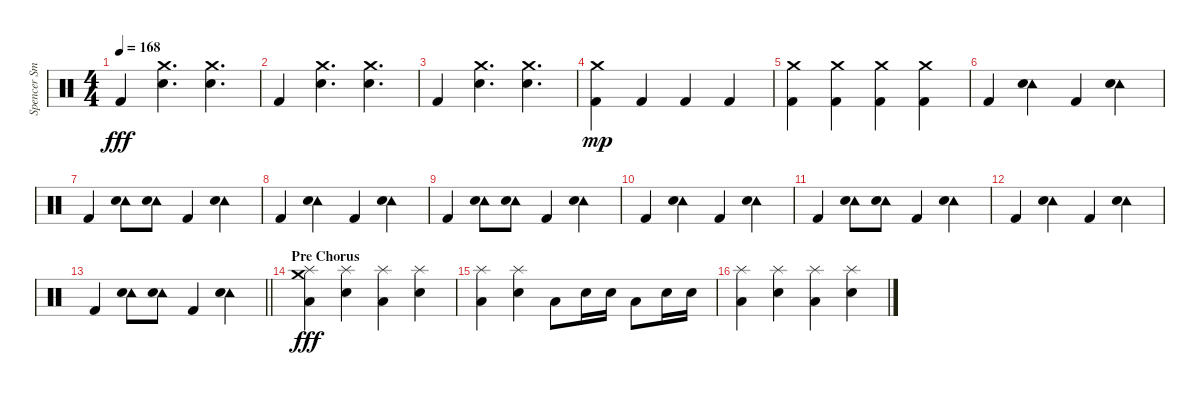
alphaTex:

\track ("Spencer Smith" "Spencer Sm") {instrument percussion}
\staff {score}
\articulation defaults
\ts (4 4)
\tempo 168
\clef neutral
\ks c "Kick (hit) 2".4{dy fff}
("Crash medium (hit)" "Electric Snare (hit)").4{d} ("Crash medium (hit)" "Electric Snare (hit)").4{d} |
"Kick (hit) 2".4 ("Crash medium (hit)" "Electric Snare (hit)").4{d} ("Crash medium (hit)" "Electric Snare (hit)").4{d} |
"Kick (hit) 2".4 ("Crash medium (hit)" "Electric Snare (hit)").4{d} ("Crash medium (hit)" "Electric Snare (hit)").4{d} |
("Crash medium (hit)" "Kick (hit) 2").4{dy mp} "Kick (hit) 2".4 "Kick (hit) 2".4 "Kick (hit) 2".4 |
("Crash medium (hit)" "Kick (hit) 2").4 ("Crash medium (hit)" "Kick (hit) 2").4 ("Crash medium (hit)" "Kick (hit) 2").4 ("Crash medium (hit)" "Kick (hit) 2").4 |
"Kick (hit) 2".4 ("Tambourine (hit)" "Electric Snare (hit)").4 "Kick (hit) 2".4 ("Tambourine (hit)" "Electric Snare (hit)").4 |
"Kick (hit) 2".4 ("Tambourine (hit)" "Electric Snare (hit)").8 ("Tambourine (hit)" "Electric Snare (hit)").8 "Kick (hit) 2".4 ("Tambourine (hit)" "Electric Snare (hit)").4 |
"Kick (hit) 2".4 ("Tambourine (hit)" "Electric Snare (hit)").4 "Kick (hit) 2".4 ("Tambourine (hit)" "Electric Snare (hit)").4 |
"Kick (hit) 2".4 ("Tambourine (hit)" "Electric Snare (hit)").8 ("Tambourine (hit)" "Electric Snare (hit)").8 "Kick (hit) 2".4 ("Tambourine (hit)" "Electric Snare (hit)").4 |
"Kick (hit) 2".4 ("Tambourine (hit)" "Electric Snare (hit)").4 "Kick (hit) 2".4 ("Tambourine (hit)" "Electric Snare (hit)").4 |
"Kick (hit) 2".4 ("Tambourine (hit)" "Electric Snare (hit)").8 ("Tambourine (hit)" "Electric Snare (hit)").8 "Kick (hit) 2".4 ("Tambourine (hit)" "Electric Snare (hit)").4 |
"Kick (hit) 2".4 ("Tambourine (hit)" "Electric Snare (hit)").4 "Kick (hit) 2".4 ("Tambourine (hit)" "Electric Snare (hit)").4 |
\barLineRight lightlight "Kick (hit) 2".4
("Tambourine (hit)" "Electric Snare (hit)").8 ("Tambourine (hit)" "Electric Snare (hit)").8 "Kick (hit) 2".4 ("Tambourine (hit)" "Electric Snare (hit)").4 |
\section ("" "Pre Chorus")
("Crash medium (hit)" "Splash (hit)" "Low Floor Tom (hit)").4{dy fff} ("Splash (hit)" "Electric Snare (hit)").4 ("Splash (hit)" "Low Floor Tom (hit)").4 ("Splash (hit)" "Electric Snare (hit)").4 |
("Splash (hit)" "Low Floor Tom (hit)").4 ("Splash (hit)" "Electric Snare (hit)").4 "Low Floor Tom (hit)".8 "Electric Snare (hit)".16 "Electric Snare (hit)".16 "Low Floor Tom (hit)".8 "Electric Snare (hit)".16 "Electric Snare (hit)".16 |
("Splash (hit)" "Low Floor Tom (hit)").4 ("Splash (hit)" "Electric Snare (hit)").4 ("Splash (hit)" "Low Floor Tom (hit)").4 ("Splash (hit)" "Electric Snare (hit)").4
